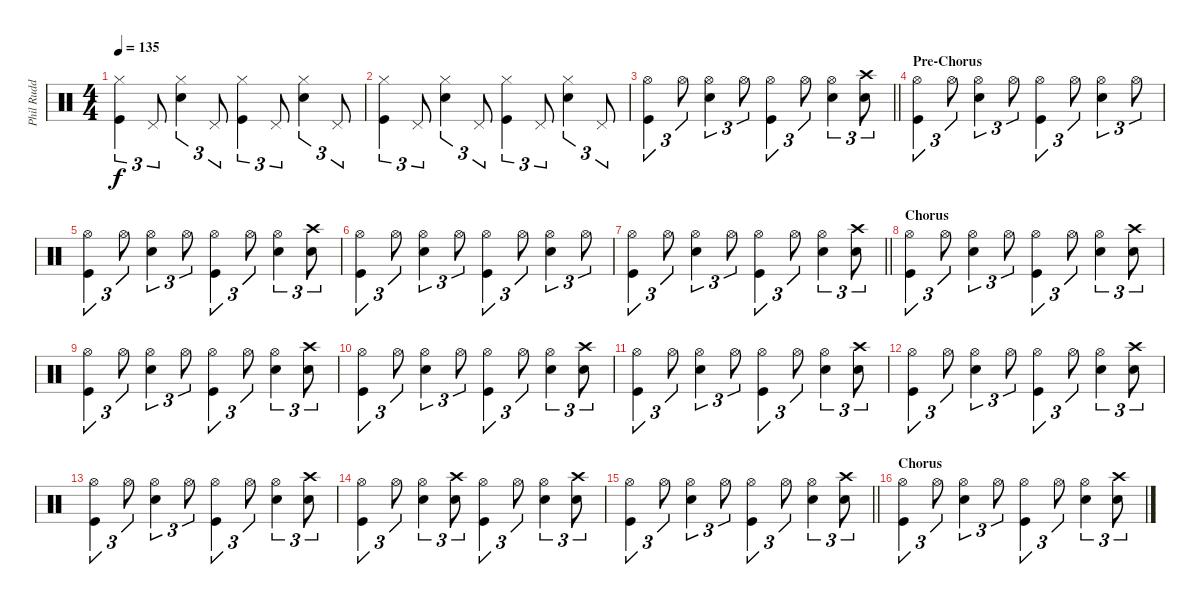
\track ("Phil Rudd" "Phil Rudd") {instrument percussion}
\staff {score}
\articulation defaults
\ts (4 4)
\tempo 135
\clef neutral
\ks c
("Hi-Hat (closed)" "Kick (hit)").4{tu (3 2) dy f} "Pedal Hi-Hat (hit)".8{tu (3 2)} ("Hi-Hat (closed)" "Snare (hit) 2").4{tu (3 2)} "Pedal Hi-Hat (hit)".8{tu (3 2)} ("Hi-Hat (closed)" "Kick (hit)").4{tu (3 2)} "Pedal Hi-Hat (hit)".8{tu (3 2)} ("Hi-Hat (closed)" "Snare (hit) 2").4{tu (3 2)} "Pedal Hi-Hat (hit)".8{tu (3 2)} |
("Hi-Hat (closed)" "Kick (hit)").4{tu (3 2)} "Pedal Hi-Hat (hit)".8{tu (3 2)} ("Hi-Hat (closed)" "Snare (hit) 2").4{tu (3 2)} "Pedal Hi-Hat (hit)".8{tu (3 2)} ("Hi-Hat (closed)" "Kick (hit)").4{tu (3 2)} "Pedal Hi-Hat (hit)".8{tu (3 2)} ("Hi-Hat (closed)" "Snare (hit) 2").4{tu (3 2)} "Pedal Hi-Hat (hit)".8{tu (3 2)} |
\barLineRight lightlight
("Hi-Hat (open)" "Kick (hit)").4{tu (3 2)} "Hi-Hat (open)".8{tu (3 2)} ("Hi-Hat (open)" "Snare (hit) 2").4{tu (3 2)} "Hi-Hat (open)".8{tu (3 2)} ("Hi-Hat (open)" "Kick (hit)").4{tu (3 2)} "Hi-Hat (open)".8{tu (3 2)} ("Hi-Hat (open)" "Snare (hit) 2").4{tu (3 2)} ("Crash high (hit)" "Snare (hit) 2").8{tu (3 2)} |
\section ("" "Pre-Chorus")
("Hi-Hat (open)" "Kick (hit)").4{tu (3 2)} "Hi-Hat (open)".8{tu (3 2)} ("Hi-Hat (open)" "Snare (hit) 2").4{tu (3 2)} "Hi-Hat (open)".8{tu (3 2)} ("Hi-Hat (open)" "Kick (hit)").4{tu (3 2)} "Hi-Hat (open)".8{tu (3 2)} ("Hi-Hat (open)" "Snare (hit) 2").4{tu (3 2)} "Hi-Hat (open)".8{tu (3 2)} |
("Hi-Hat (open)" "Kick (hit)").4{tu (3 2)} "Hi-Hat (open)".8{tu (3 2)} ("Hi-Hat (open)" "Snare (hit) 2").4{tu (3 2)} "Hi-Hat (open)".8{tu (3 2)} ("Hi-Hat (open)" "Kick (hit)").4{tu (3 2)} "Hi-Hat (open)".8{tu (3 2)} ("Hi-Hat (open)" "Snare (hit) 2").4{tu (3 2)} ("Crash high (hit)" "Snare (hit) 2").8{tu (3 2)} |
("Hi-Hat (open)" "Kick (hit)").4{tu (3 2)} "Hi-Hat (open)".8{tu (3 2)} ("Hi-Hat (open)" "Snare (hit) 2").4{tu (3 2)} "Hi-Hat (open)".8{tu (3 2)} ("Hi-Hat (open)" "Kick (hit)").4{tu (3 2)} "Hi-Hat (open)".8{tu (3 2)} ("Hi-Hat (open)" "Snare (hit) 2").4{tu (3 2)} "Hi-Hat (open)".8{tu (3 2)} |
\barLineRight lightlight
("Hi-Hat (open)" "Kick (hit)").4{tu (3 2)} "Hi-Hat (open)".8{tu (3 2)} ("Hi-Hat (open)" "Snare (hit) 2").4{tu (3 2)} "Hi-Hat (open)".8{tu (3 2)} ("Hi-Hat (open)" "Kick (hit)").4{tu (3 2)} "Hi-Hat (open)".8{tu (3 2)} ("Hi-Hat (open)" "Snare (hit) 2").4{tu (3 2)} ("Crash high (hit)" "Snare (hit) 2").8{tu (3 2)} |
\section ("" "Chorus")
("Hi-Hat (open)" "Kick (hit)").4{tu (3 2)} "Hi-Hat (open)".8{tu (3 2)} ("Hi-Hat (open)" "Snare (hit) 2").4{tu (3 2)} "Hi-Hat (open)".8{tu (3 2)} ("Hi-Hat (open)" "Kick (hit)").4{tu (3 2)} "Hi-Hat (open)".8{tu (3 2)} ("Hi-Hat (open)" "Snare (hit) 2").4{tu (3 2)} ("Crash high (hit)" "Snare (hit) 2").8{tu (3 2)} |
("Hi-Hat (open)" "Kick (hit)").4{tu (3 2)} "Hi-Hat (open)".8{tu (3 2)} ("Hi-Hat (open)" "Snare (hit) 2").4{tu (3 2)} "Hi-Hat (open)".8{tu (3 2)} ("Hi-Hat (open)" "Kick (hit)").4{tu (3 2)} "Hi-Hat (open)".8{tu (3 2)} ("Hi-Hat (open)" "Snare (hit) 2").4{tu (3 2)} ("Crash high (hit)" "Snare (hit) 2").8{tu (3 2)} |
("Hi-Hat (open)" "Kick (hit)").4{tu (3 2)} "Hi-Hat (open)".8{tu (3 2)} ("Hi-Hat (open)" "Snare (hit) 2").4{tu (3 2)} "Hi-Hat (open)".8{tu (3 2)} ("Hi-Hat (open)" "Kick (hit)").4{tu (3 2)} "Hi-Hat (open)".8{tu (3 2)} ("Hi-Hat (open)" "Snare (hit) 2").4{tu (3 2)} ("Crash high (hit)" "Snare (hit) 2").8{tu (3 2)} |
("Hi-Hat (open)" "Kick (hit)").4{tu (3 2)} "Hi-Hat (open)".8{tu (3 2)} ("Hi-Hat (open)" "Snare (hit) 2").4{tu (3 2)} "Hi-Hat (open)".8{tu (3 2)} ("Hi-Hat (open)" "Kick (hit)").4{tu (3 2)} "Hi-Hat (open)".8{tu (3 2)} ("Hi-Hat (open)" "Snare (hit) 2").4{tu (3 2)} ("Crash high (hit)" "Snare (hit) 2").8{tu (3 2)} |
("Hi-Hat (open)" "Kick (hit)").4{tu (3 2)} "Hi-Hat (open)".8{tu (3 2)} ("Hi-Hat (open)" "Snare (hit) 2").4{tu (3 2)} "Hi-Hat (open)".8{tu (3 2)} ("Hi-Hat (open)" "Kick (hit)").4{tu (3 2)} "Hi-Hat (open)".8{tu (3 2)} ("Hi-Hat (open)" "Snare (hit) 2").4{tu (3 2)} ("Crash high (hit)" "Snare (hit) 2").8{tu (3 2)} |
("Hi-Hat (open)" "Kick (hit)").4{tu (3 2)} "Hi-Hat (open)".8{tu (3 2)} ("Hi-Hat (open)" "Snare (hit) 2").4{tu (3 2)} "Hi-Hat (open)".8{tu (3 2)} ("Hi-Hat (open)" "Kick (hit)").4{tu (3 2)} "Hi-Hat (open)".8{tu (3 2)} ("Hi-Hat (open)" "Snare (hit) 2").4{tu (3 2)} ("Crash high (hit)" "Snare (hit) 2").8{tu (3 2)} |
("Hi-Hat (open)" "Kick (hit)").4{tu (3 2)} "Hi-Hat (open)".8{tu (3 2)} ("Hi-Hat (open)" "Snare (hit) 2").4{tu (3 2)} ("Crash high (hit)" "Snare (hit) 2").8{tu (3 2)} ("Hi-Hat (open)" "Kick (hit)").4{tu (3 2)} "Hi-Hat (open)".8{tu (3 2)} ("Hi-Hat (open)" "Snare (hit) 2").4{tu (3 2)} ("Crash high (hit)" "Snare (hit) 2").8{tu (3 2)} |
\barLineRight lightlight
("Hi-Hat (open)" "Kick (hit)").4{tu (3 2)} "Hi-Hat (open)".8{tu (3 2)} ("Hi-Hat (open)" "Snare (hit) 2").4{tu (3 2)} "Hi-Hat (open)".8{tu (3 2)} ("Hi-Hat (open)" "Kick (hit)").4{tu (3 2)} "Hi-Hat (open)".8{tu (3 2)} ("Hi-Hat (open)" "Snare (hit) 2").4{tu (3 2)} ("Crash high (hit)" "Snare (hit) 2").8{tu (3 2)} |
\section ("" "Chorus")
("Hi-Hat (open)" "Kick (hit)").4{tu (3 2)} "Hi-Hat (open)".8{tu (3 2)} ("Hi-Hat (open)" "Snare (hit) 2").4{tu (3 2)} "Hi-Hat (open)".8{tu (3 2)} ("Hi-Hat (open)" "Kick (hit)").4{tu (3 2)} "Hi-Hat (open)".8{tu (3 2)} ("Hi-Hat (open)" "Snare (hit) 2").4{tu (3 2)} ("Crash high (hit)" "Snare (hit) 2").8{tu (3 2)}
